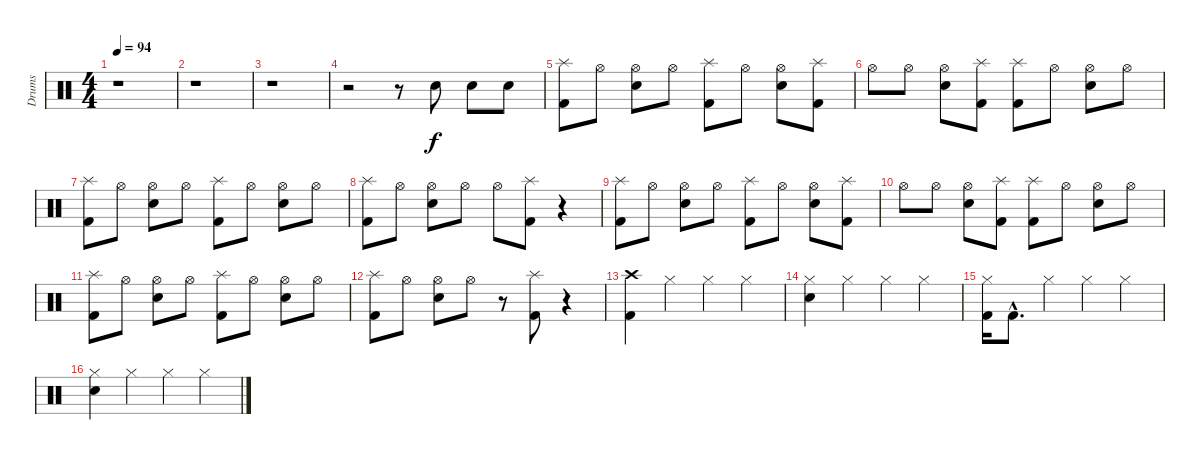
\track ("Drums" "Drums") {instrument percussion}
\staff {score}
\articulation defaults
\ts (4 4)
\tempo 94
\clef neutral
\ks c
r.1{dy f} |
r.1 |
r.1 |
r.2 r.8 "Electric Snare (hit)".8 "Electric Snare (hit)".8 "Electric Snare (hit)".8 |
("Splash (hit)" "Kick (hit) 2").8 "Hi-Hat (open)".8 ("Hi-Hat (open)" "Electric Snare (hit)").8 "Hi-Hat (open)".8 ("Splash (hit)" "Kick (hit) 2").8 "Hi-Hat (open)".8 ("Hi-Hat (open)" "Electric Snare (hit)").8 ("Splash (hit)" "Kick (hit) 2").8 |
"Hi-Hat (open)".8 "Hi-Hat (open)".8 ("Hi-Hat (open)" "Electric Snare (hit)").8 ("Splash (hit)" "Kick (hit) 2").8 ("Splash (hit)" "Kick (hit) 2").8 "Hi-Hat (open)".8 ("Hi-Hat (open)" "Electric Snare (hit)").8 "Hi-Hat (open)".8 |
("Splash (hit)" "Kick (hit) 2").8 "Hi-Hat (open)".8 ("Hi-Hat (open)" "Electric Snare (hit)").8 "Hi-Hat (open)".8 ("Splash (hit)" "Kick (hit) 2").8 "Hi-Hat (open)".8 ("Hi-Hat (open)" "Electric Snare (hit)").8 "Hi-Hat (open)".8 |
("Splash (hit)" "Kick (hit) 2").8 "Hi-Hat (open)".8 ("Hi-Hat (open)" "Electric Snare (hit)").8 "Hi-Hat (open)".8 "Hi-Hat (open)".8 ("Splash (hit)" "Kick (hit) 2").8 r.4 |
("Splash (hit)" "Kick (hit) 2").8 "Hi-Hat (open)".8 ("Hi-Hat (open)" "Electric Snare (hit)").8 "Hi-Hat (open)".8 ("Splash (hit)" "Kick (hit) 2").8 "Hi-Hat (open)".8 ("Hi-Hat (open)" "Electric Snare (hit)").8 ("Splash (hit)" "Kick (hit) 2").8 |
"Hi-Hat (open)".8 "Hi-Hat (open)".8 ("Hi-Hat (open)" "Electric Snare (hit)").8 ("Splash (hit)" "Kick (hit) 2").8 ("Splash (hit)" "Kick (hit) 2").8 "Hi-Hat (open)".8 ("Hi-Hat (open)" "Electric Snare (hit)").8 "Hi-Hat (open)".8 |
("Splash (hit)" "Kick (hit) 2").8 "Hi-Hat (open)".8 ("Hi-Hat (open)" "Electric Snare (hit)").8 "Hi-Hat (open)".8 ("Splash (hit)" "Kick (hit) 2").8 "Hi-Hat (open)".8 ("Hi-Hat (open)" "Electric Snare (hit)").8 "Hi-Hat (open)".8 |
("Splash (hit)" "Kick (hit) 2").8 "Hi-Hat (open)".8 ("Hi-Hat (open)" "Electric Snare (hit)").8 "Hi-Hat (open)".8 r.8 ("Splash (hit)" "Kick (hit) 2").8 r.4 |
("Crash high (hit)" "Kick (hit) 2").4 "Hi-Hat (closed)".4 "Hi-Hat (closed)".4 "Hi-Hat (closed)".4 |
("Hi-Hat (closed)" "Electric Snare (hit)").4 "Hi-Hat (closed)".4 "Hi-Hat (closed)".4 "Hi-Hat (closed)".4 |
("Hi-Hat (closed)" "Kick (hit) 2").16 "Kick (hit) 2"{hac}.8{d} "Hi-Hat (closed)".4 "Hi-Hat (closed)".4 "Hi-Hat (closed)".4 |
("Hi-Hat (closed)" "Electric Snare (hit)").4 "Hi-Hat (closed)".4 "Hi-Hat (closed)".4 "Hi-Hat (closed)".4
